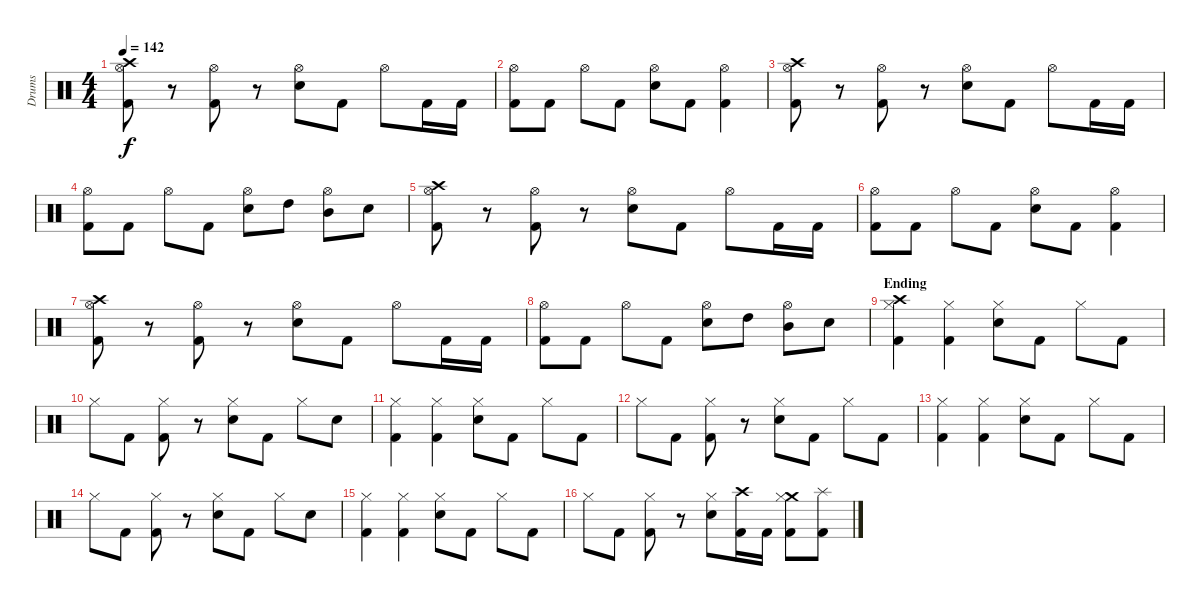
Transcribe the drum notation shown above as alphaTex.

\track ("Drums" "Drums") {instrument percussion}
\staff {score}
\articulation defaults
\ts (4 4)
\tempo 142
\clef neutral
\ks c
("Crash high (hit)" "Hi-Hat (open)" "Kick (hit) 2").8{dy f} r.8 ("Hi-Hat (open)" "Kick (hit) 2").8 r.8 ("Hi-Hat (open)" "Electric Snare (hit)").8 "Kick (hit) 2".8 "Hi-Hat (open)".8 "Kick (hit) 2".16 "Kick (hit) 2".16 |
("Hi-Hat (open)" "Kick (hit) 2").8 "Kick (hit) 2".8 "Hi-Hat (open)".8 "Kick (hit) 2".8 ("Hi-Hat (open)" "Electric Snare (hit)").8 "Kick (hit) 2".8 ("Hi-Hat (open)" "Kick (hit) 2").4 |
("Crash high (hit)" "Hi-Hat (open)" "Kick (hit) 2").8 r.8 ("Hi-Hat (open)" "Kick (hit) 2").8 r.8 ("Hi-Hat (open)" "Electric Snare (hit)").8 "Kick (hit) 2".8 "Hi-Hat (open)".8 "Kick (hit) 2".16 "Kick (hit) 2".16 |
("Hi-Hat (open)" "Kick (hit) 2").8 "Kick (hit) 2".8 "Hi-Hat (open)".8 "Kick (hit) 2".8 ("Hi-Hat (open)" "Electric Snare (hit)").8 "High Tom (hit)".8 ("Hi-Hat (open)" "Mid Tom (hit)").8 "Electric Snare (hit)".8 |
("Crash high (hit)" "Hi-Hat (open)" "Kick (hit) 2").8 r.8 ("Hi-Hat (open)" "Kick (hit) 2").8 r.8 ("Hi-Hat (open)" "Electric Snare (hit)").8 "Kick (hit) 2".8 "Hi-Hat (open)".8 "Kick (hit) 2".16 "Kick (hit) 2".16 |
("Hi-Hat (open)" "Kick (hit) 2").8 "Kick (hit) 2".8 "Hi-Hat (open)".8 "Kick (hit) 2".8 ("Hi-Hat (open)" "Electric Snare (hit)").8 "Kick (hit) 2".8 ("Hi-Hat (open)" "Kick (hit) 2").4 |
("Crash high (hit)" "Hi-Hat (open)" "Kick (hit) 2").8 r.8 ("Hi-Hat (open)" "Kick (hit) 2").8 r.8 ("Hi-Hat (open)" "Electric Snare (hit)").8 "Kick (hit) 2".8 "Hi-Hat (open)".8 "Kick (hit) 2".16 "Kick (hit) 2".16 |
("Hi-Hat (open)" "Kick (hit) 2").8 "Kick (hit) 2".8 "Hi-Hat (open)".8 "Kick (hit) 2".8 ("Hi-Hat (open)" "Electric Snare (hit)").8 "High Tom (hit)".8 ("Hi-Hat (open)" "Mid Tom (hit)").8 "Electric Snare (hit)".8 |
\section ("" "Ending")
("Crash high (hit)" "Hi-Hat (closed)" "Kick (hit) 2").4 ("Hi-Hat (closed)" "Kick (hit) 2").4 ("Hi-Hat (closed)" "Electric Snare (hit)").8 "Kick (hit) 2".8 "Hi-Hat (closed)".8 "Kick (hit) 2".8 |
"Hi-Hat (closed)".8 "Kick (hit) 2".8 ("Hi-Hat (closed)" "Kick (hit) 2").8 r.8 ("Hi-Hat (closed)" "Electric Snare (hit)").8 "Kick (hit) 2".8 "Hi-Hat (closed)".8 "Electric Snare (hit)".8 |
("Hi-Hat (closed)" "Kick (hit) 2").4 ("Hi-Hat (closed)" "Kick (hit) 2").4 ("Hi-Hat (closed)" "Electric Snare (hit)").8 "Kick (hit) 2".8 "Hi-Hat (closed)".8 "Kick (hit) 2".8 |
"Hi-Hat (closed)".8 "Kick (hit) 2".8 ("Hi-Hat (closed)" "Kick (hit) 2").8 r.8 ("Hi-Hat (closed)" "Electric Snare (hit)").8 "Kick (hit) 2".8 "Hi-Hat (closed)".8 "Kick (hit) 2".8 |
("Hi-Hat (closed)" "Kick (hit) 2").4 ("Hi-Hat (closed)" "Kick (hit) 2").4 ("Hi-Hat (closed)" "Electric Snare (hit)").8 "Kick (hit) 2".8 "Hi-Hat (closed)".8 "Kick (hit) 2".8 |
"Hi-Hat (closed)".8 "Kick (hit) 2".8 ("Hi-Hat (closed)" "Kick (hit) 2").8 r.8 ("Hi-Hat (closed)" "Electric Snare (hit)").8 "Kick (hit) 2".8 "Hi-Hat (closed)".8 "Electric Snare (hit)".8 |
("Hi-Hat (closed)" "Kick (hit) 2").4 ("Hi-Hat (closed)" "Kick (hit) 2").4 ("Hi-Hat (closed)" "Electric Snare (hit)").8 "Kick (hit) 2".8 "Hi-Hat (closed)".8 "Kick (hit) 2".8 |
"Hi-Hat (closed)".8 "Kick (hit) 2".8 ("Hi-Hat (closed)" "Kick (hit) 2").8 r.8 ("Hi-Hat (closed)" "Electric Snare (hit)").8 ("Crash high (hit)" "Kick (hit) 2").16 "Kick (hit) 2".16 ("Crash medium (hit)" "Hi-Hat (closed)" "Kick (hit) 2").8 ("Splash (hit)" "Kick (hit) 2").8
